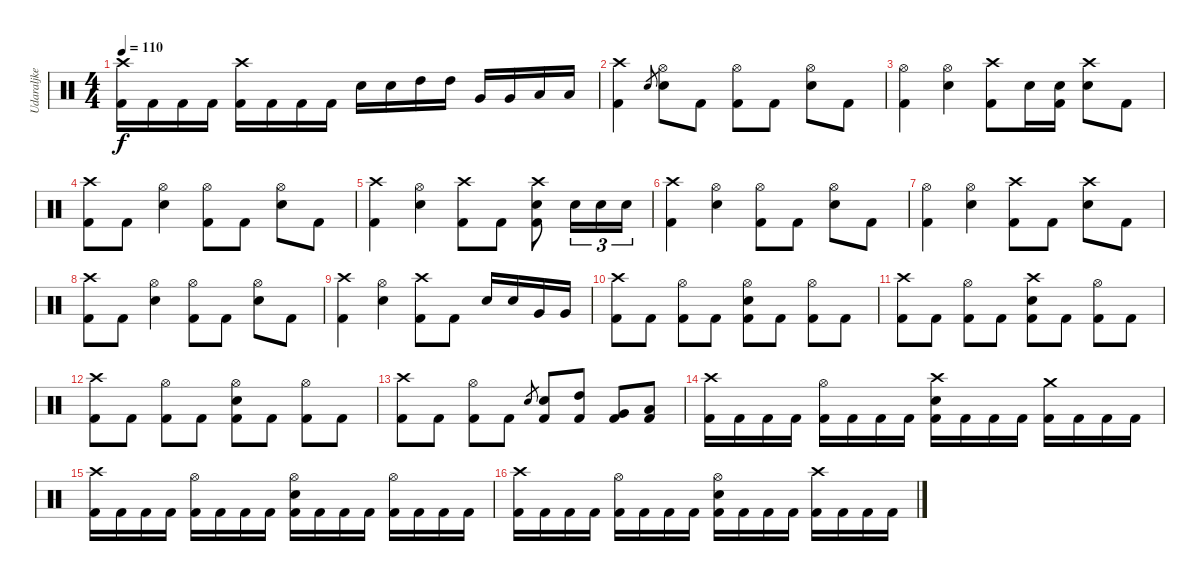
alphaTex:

\track ("Udaraljke" "Udaraljke") {instrument percussion}
\staff {score}
\articulation defaults
\ts (4 4)
\tempo 110
\clef neutral
\ks c
("Crash high (hit)" "Kick (hit) 2").16{dy f} "Kick (hit) 2".16 "Kick (hit) 2".16 "Kick (hit) 2".16 ("Crash high (hit)" "Kick (hit) 2").16 "Kick (hit) 2".16 "Kick (hit) 2".16 "Kick (hit) 2".16 "Electric Snare (hit)".16 "Electric Snare (hit)".16 "High Tom (hit)".16 "High Tom (hit)".16 "Very Low Tom (hit)".16 "Very Low Tom (hit)".16 "Low Tom (hit)".16 "Low Tom (hit)".16 |
("Crash high (hit)" "Kick (hit) 2").4 "Electric Snare (hit)".8{gr} ("Hi-Hat (open)" "Electric Snare (hit)").8 "Kick (hit) 2".8 ("Hi-Hat (open)" "Kick (hit) 2").8 "Kick (hit) 2".8 ("Hi-Hat (open)" "Electric Snare (hit)").8 "Kick (hit) 2".8 |
("Hi-Hat (open)" "Kick (hit) 2").4 ("Hi-Hat (open)" "Electric Snare (hit)").4 ("Crash high (hit)" "Kick (hit) 2").8 "Electric Snare (hit)".16 ("Electric Snare (hit)" "Kick (hit) 2").16 ("Crash high (hit)" "Electric Snare (hit)").8 "Kick (hit) 2".8 |
("Crash high (hit)" "Kick (hit) 2").8 "Kick (hit) 2".8 ("Hi-Hat (open)" "Electric Snare (hit)").4 ("Hi-Hat (open)" "Kick (hit) 2").8 "Kick (hit) 2".8 ("Hi-Hat (open)" "Electric Snare (hit)").8 "Kick (hit) 2".8 |
("Crash high (hit)" "Kick (hit) 2").4 ("Hi-Hat (open)" "Electric Snare (hit)").4 ("Crash high (hit)" "Kick (hit) 2").8 "Kick (hit) 2".8 ("Crash high (hit)" "Electric Snare (hit)" "Kick (hit) 2").8 "Electric Snare (hit)".16{tu (3 2)} "Electric Snare (hit)".16{tu (3 2)} "Electric Snare (hit)".16{tu (3 2)} |
("Crash high (hit)" "Kick (hit) 2").4 ("Hi-Hat (open)" "Electric Snare (hit)").4 ("Hi-Hat (open)" "Kick (hit) 2").8 "Kick (hit) 2".8 ("Hi-Hat (open)" "Electric Snare (hit)").8 "Kick (hit) 2".8 |
("Hi-Hat (open)" "Kick (hit) 2").4 ("Hi-Hat (open)" "Electric Snare (hit)").4 ("Crash high (hit)" "Kick (hit) 2").8 "Kick (hit) 2".8 ("Crash high (hit)" "Electric Snare (hit)").8 "Kick (hit) 2".8 |
("Crash high (hit)" "Kick (hit) 2").8 "Kick (hit) 2".8 ("Hi-Hat (open)" "Electric Snare (hit)").4 ("Hi-Hat (open)" "Kick (hit) 2").8 "Kick (hit) 2".8 ("Hi-Hat (open)" "Electric Snare (hit)").8 "Kick (hit) 2".8 |
("Crash high (hit)" "Kick (hit) 2").4 ("Hi-Hat (open)" "Electric Snare (hit)").4 ("Crash high (hit)" "Kick (hit) 2").8 "Kick (hit) 2".8 "Electric Snare (hit)".16 "Electric Snare (hit)".16 "Very Low Tom (hit)".16 "Very Low Tom (hit)".16 |
("Crash high (hit)" "Kick (hit) 2").8 "Kick (hit) 2".8 ("Hi-Hat (open)" "Kick (hit) 2").8 "Kick (hit) 2".8 ("Hi-Hat (open)" "Electric Snare (hit)" "Kick (hit) 2").8 "Kick (hit) 2".8 ("Hi-Hat (open)" "Kick (hit) 2").8 "Kick (hit) 2".8 |
("Crash high (hit)" "Kick (hit) 2").8 "Kick (hit) 2".8 ("Hi-Hat (open)" "Kick (hit) 2").8 "Kick (hit) 2".8 ("Crash high (hit)" "Electric Snare (hit)" "Kick (hit) 2").8 "Kick (hit) 2".8 ("Hi-Hat (open)" "Kick (hit) 2").8 "Kick (hit) 2".8 |
("Crash high (hit)" "Kick (hit) 2").8 "Kick (hit) 2".8 ("Hi-Hat (open)" "Kick (hit) 2").8 "Kick (hit) 2".8 ("Hi-Hat (open)" "Electric Snare (hit)" "Kick (hit) 2").8 "Kick (hit) 2".8 ("Hi-Hat (open)" "Kick (hit) 2").8 "Kick (hit) 2".8 |
("Crash high (hit)" "Kick (hit) 2").8 "Kick (hit) 2".8 ("Hi-Hat (open)" "Kick (hit) 2").8 "Kick (hit) 2".8 "Electric Snare (hit)".8{gr} ("Electric Snare (hit)" "Kick (hit) 2").8 ("High Tom (hit)" "Kick (hit) 2").8 ("Very Low Tom (hit)" "Kick (hit) 2").8 ("Low Tom (hit)" "Kick (hit) 2").8 |
("Crash high (hit)" "Kick (hit) 2").16 "Kick (hit) 2".16 "Kick (hit) 2".16 "Kick (hit) 2".16 ("Hi-Hat (open)" "Kick (hit) 2").16 "Kick (hit) 2".16 "Kick (hit) 2".16 "Kick (hit) 2".16 ("Crash high (hit)" "Electric Snare (hit)" "Kick (hit) 2").16 "Kick (hit) 2".16 "Kick (hit) 2".16 "Kick (hit) 2".16 ("Crash medium (hit)" "Kick (hit) 2").16 "Kick (hit) 2".16 "Kick (hit) 2".16 "Kick (hit) 2".16 |
("Crash high (hit)" "Kick (hit) 2").16 "Kick (hit) 2".16 "Kick (hit) 2".16 "Kick (hit) 2".16 ("Hi-Hat (open)" "Kick (hit) 2").16 "Kick (hit) 2".16 "Kick (hit) 2".16 "Kick (hit) 2".16 ("Hi-Hat (open)" "Electric Snare (hit)" "Kick (hit) 2").16 "Kick (hit) 2".16 "Kick (hit) 2".16 "Kick (hit) 2".16 ("Hi-Hat (open)" "Kick (hit) 2").16 "Kick (hit) 2".16 "Kick (hit) 2".16 "Kick (hit) 2".16 |
("Crash high (hit)" "Kick (hit) 2").16 "Kick (hit) 2".16 "Kick (hit) 2".16 "Kick (hit) 2".16 ("Hi-Hat (open)" "Kick (hit) 2").16 "Kick (hit) 2".16 "Kick (hit) 2".16 "Kick (hit) 2".16 ("Hi-Hat (open)" "Electric Snare (hit)" "Kick (hit) 2").16 "Kick (hit) 2".16 "Kick (hit) 2".16 "Kick (hit) 2".16 ("Crash high (hit)" "Kick (hit) 2").16 "Kick (hit) 2".16 "Kick (hit) 2".16 "Kick (hit) 2".16
